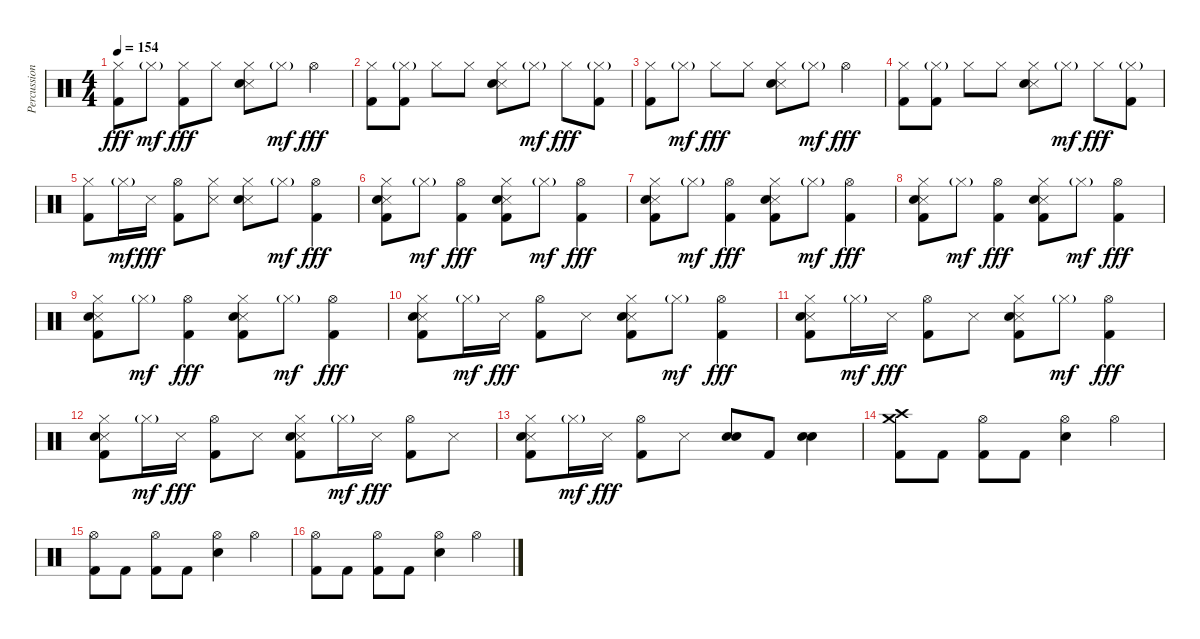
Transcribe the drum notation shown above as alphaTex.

\track ("Percussion" "Percussion") {instrument percussion}
\staff {score}
\articulation defaults
\ts (4 4)
\tempo 154
\clef neutral
\ks c
("Hi-Hat (closed)" "Kick (hit) 2").8{dy fff} "Hi-Hat (closed)"{g}.8{dy mf} ("Hi-Hat (closed)" "Kick (hit) 2").8{dy fff} "Hi-Hat (closed)".8 ("Hi-Hat (closed)" "Snare (side stick) 3" "Electric Snare (hit)").8 "Hi-Hat (closed)"{g}.8{dy mf} "Hi-Hat (open)".4{dy fff} |
("Hi-Hat (closed)" "Kick (hit) 2").8 ("Hi-Hat (closed)"{g} "Kick (hit) 2").8 "Hi-Hat (closed)".8 "Hi-Hat (closed)".8 ("Hi-Hat (closed)" "Snare (side stick) 3" "Electric Snare (hit)").8 "Hi-Hat (closed)"{g}.8{dy mf} "Hi-Hat (closed)".8{dy fff} ("Hi-Hat (closed)"{g} "Kick (hit) 2").8 |
("Hi-Hat (closed)" "Kick (hit) 2").8 "Hi-Hat (closed)"{g}.8{dy mf} "Hi-Hat (closed)".8{dy fff} "Hi-Hat (closed)".8 ("Hi-Hat (closed)" "Snare (side stick) 3" "Electric Snare (hit)").8 "Hi-Hat (closed)"{g}.8{dy mf} "Hi-Hat (open)".4{dy fff} |
("Hi-Hat (closed)" "Kick (hit) 2").8 ("Hi-Hat (closed)"{g} "Kick (hit) 2").8 "Hi-Hat (closed)".8 "Hi-Hat (closed)".8 ("Hi-Hat (closed)" "Snare (side stick) 3" "Electric Snare (hit)").8 "Hi-Hat (closed)"{g}.8{dy mf} "Hi-Hat (closed)".8{dy fff} ("Hi-Hat (closed)"{g} "Kick (hit) 2").8 |
("Hi-Hat (closed)" "Kick (hit) 2").8 "Hi-Hat (closed)"{g}.16{dy mf} "Snare (side stick) 3".16{dy fff} ("Hi-Hat (open)" "Kick (hit) 2").8 ("Hi-Hat (closed)" "Snare (side stick) 3").8 ("Hi-Hat (closed)" "Snare (side stick) 3" "Electric Snare (hit)").8 "Hi-Hat (closed)"{g}.8{dy mf} ("Hi-Hat (open)" "Kick (hit) 2").4{dy fff} |
("Hi-Hat (closed)" "Kick (hit) 2" "Snare (side stick) 3" "Electric Snare (hit)").8 "Hi-Hat (closed)"{g}.8{dy mf} ("Hi-Hat (open)" "Kick (hit) 2").4{dy fff} ("Hi-Hat (closed)" "Kick (hit) 2" "Snare (side stick) 3" "Electric Snare (hit)").8 "Hi-Hat (closed)"{g}.8{dy mf} ("Hi-Hat (open)" "Kick (hit) 2").4{dy fff} |
("Hi-Hat (closed)" "Kick (hit) 2" "Snare (side stick) 3" "Electric Snare (hit)").8 "Hi-Hat (closed)"{g}.8{dy mf} ("Hi-Hat (open)" "Kick (hit) 2").4{dy fff} ("Hi-Hat (closed)" "Kick (hit) 2" "Snare (side stick) 3" "Electric Snare (hit)").8 "Hi-Hat (closed)"{g}.8{dy mf} ("Hi-Hat (open)" "Kick (hit) 2").4{dy fff} |
("Hi-Hat (closed)" "Kick (hit) 2" "Snare (side stick) 3" "Electric Snare (hit)").8 "Hi-Hat (closed)"{g}.8{dy mf} ("Hi-Hat (open)" "Kick (hit) 2").4{dy fff} ("Hi-Hat (closed)" "Kick (hit) 2" "Snare (side stick) 3" "Electric Snare (hit)").8 "Hi-Hat (closed)"{g}.8{dy mf} ("Hi-Hat (open)" "Kick (hit) 2").4{dy fff} |
("Hi-Hat (closed)" "Kick (hit) 2" "Snare (side stick) 3" "Electric Snare (hit)").8 "Hi-Hat (closed)"{g}.8{dy mf} ("Hi-Hat (open)" "Kick (hit) 2").4{dy fff} ("Hi-Hat (closed)" "Kick (hit) 2" "Snare (side stick) 3" "Electric Snare (hit)").8 "Hi-Hat (closed)"{g}.8{dy mf} ("Hi-Hat (open)" "Kick (hit) 2").4{dy fff} |
("Hi-Hat (closed)" "Kick (hit) 2" "Snare (side stick) 3" "Electric Snare (hit)").8 "Hi-Hat (closed)"{g}.16{dy mf} "Snare (side stick) 3".16{dy fff} ("Hi-Hat (open)" "Kick (hit) 2").8 "Snare (side stick) 3".8 ("Hi-Hat (closed)" "Kick (hit) 2" "Snare (side stick) 3" "Electric Snare (hit)").8 "Hi-Hat (closed)"{g}.8{dy mf} ("Hi-Hat (open)" "Kick (hit) 2").4{dy fff} |
("Hi-Hat (closed)" "Kick (hit) 2" "Snare (side stick) 3" "Electric Snare (hit)").8 "Hi-Hat (closed)"{g}.16{dy mf} "Snare (side stick) 3".16{dy fff} ("Hi-Hat (open)" "Kick (hit) 2").8 "Snare (side stick) 3".8 ("Hi-Hat (closed)" "Kick (hit) 2" "Snare (side stick) 3" "Electric Snare (hit)").8 "Hi-Hat (closed)"{g}.8{dy mf} ("Hi-Hat (open)" "Kick (hit) 2").4{dy fff} |
("Hi-Hat (closed)" "Kick (hit) 2" "Snare (side stick) 3" "Electric Snare (hit)").8 "Hi-Hat (closed)"{g}.16{dy mf} "Snare (side stick) 3".16{dy fff} ("Hi-Hat (open)" "Kick (hit) 2").8 "Snare (side stick) 3".8 ("Hi-Hat (closed)" "Kick (hit) 2" "Snare (side stick) 3" "Electric Snare (hit)").8 "Hi-Hat (closed)"{g}.16{dy mf} "Snare (side stick) 3".16{dy fff} ("Hi-Hat (open)" "Kick (hit) 2").8 "Snare (side stick) 3".8 |
("Hi-Hat (closed)" "Kick (hit) 2" "Snare (side stick) 3" "Electric Snare (hit)").8 "Hi-Hat (closed)"{g}.16{dy mf} "Snare (side stick) 3".16{dy fff} ("Hi-Hat (open)" "Kick (hit) 2").8 "Snare (side stick) 3".8 ("Electric Snare (hit)" "Electric Snare (hit)").8{bd 240} "Kick (hit) 2".8 ("Electric Snare (hit)" "Electric Snare (hit)").4{bd 240} |
("Crash medium (hit)" "Crash high (hit)" "Kick (hit) 2").8 "Kick (hit) 2".8 ("Hi-Hat (open)" "Kick (hit) 2").8 "Kick (hit) 2".8 ("Hi-Hat (open)" "Electric Snare (hit)").4 "Hi-Hat (open)".4 |
("Hi-Hat (open)" "Kick (hit) 2").8 "Kick (hit) 2".8 ("Hi-Hat (open)" "Kick (hit) 2").8 "Kick (hit) 2".8 ("Hi-Hat (open)" "Electric Snare (hit)").4 "Hi-Hat (open)".4 |
("Hi-Hat (open)" "Kick (hit) 2").8 "Kick (hit) 2".8 ("Hi-Hat (open)" "Kick (hit) 2").8 "Kick (hit) 2".8 ("Hi-Hat (open)" "Electric Snare (hit)").4 "Hi-Hat (open)".4
